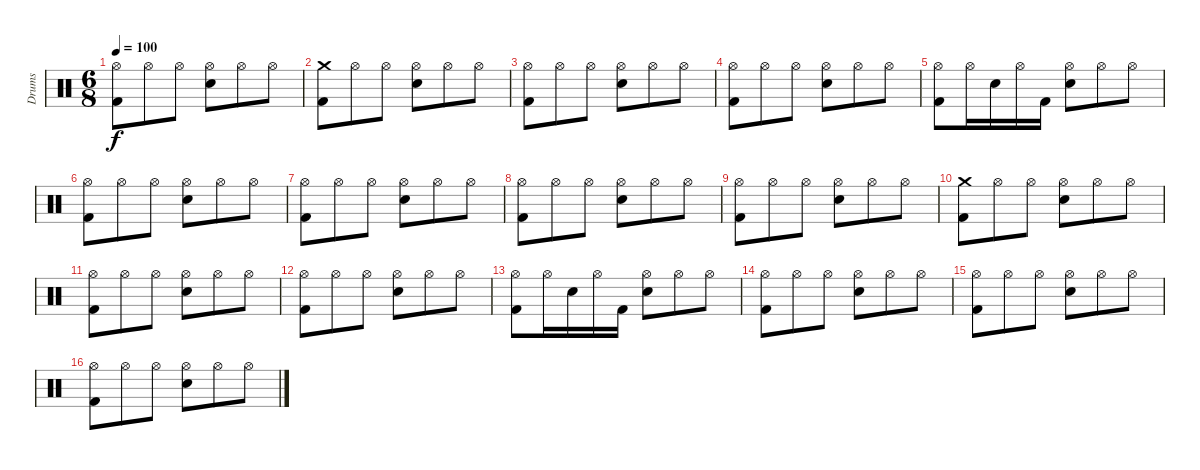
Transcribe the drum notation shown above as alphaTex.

\track ("Drums" "Drums") {instrument percussion}
\staff {score}
\articulation defaults
\ts (6 8)
\tempo 100
\clef neutral
\ks c
("Hi-Hat (open)" "Kick (hit) 2").8{dy f} "Hi-Hat (open)".8 "Hi-Hat (open)".8 ("Hi-Hat (open)" "Snare (hit) 2").8 "Hi-Hat (open)".8 "Hi-Hat (open)".8 |
("Crash medium (hit)" "Kick (hit) 2").8 "Hi-Hat (open)".8 "Hi-Hat (open)".8 ("Hi-Hat (open)" "Snare (hit) 2").8 "Hi-Hat (open)".8 "Hi-Hat (open)".8 |
("Hi-Hat (open)" "Kick (hit) 2").8 "Hi-Hat (open)".8 "Hi-Hat (open)".8 ("Hi-Hat (open)" "Snare (hit) 2").8 "Hi-Hat (open)".8 "Hi-Hat (open)".8 |
("Hi-Hat (open)" "Kick (hit) 2").8 "Hi-Hat (open)".8 "Hi-Hat (open)".8 ("Hi-Hat (open)" "Snare (hit) 2").8 "Hi-Hat (open)".8 "Hi-Hat (open)".8 |
("Hi-Hat (open)" "Kick (hit) 2").8 "Hi-Hat (open)".16 "Snare (hit) 2".16 "Hi-Hat (open)".16 "Kick (hit) 2".16 ("Hi-Hat (open)" "Snare (hit) 2").8 "Hi-Hat (open)".8 "Hi-Hat (open)".8 |
("Hi-Hat (open)" "Kick (hit) 2").8 "Hi-Hat (open)".8 "Hi-Hat (open)".8 ("Hi-Hat (open)" "Snare (hit) 2").8 "Hi-Hat (open)".8 "Hi-Hat (open)".8 |
("Hi-Hat (open)" "Kick (hit) 2").8 "Hi-Hat (open)".8 "Hi-Hat (open)".8 ("Hi-Hat (open)" "Snare (hit) 2").8 "Hi-Hat (open)".8 "Hi-Hat (open)".8 |
("Hi-Hat (open)" "Kick (hit) 2").8 "Hi-Hat (open)".8 "Hi-Hat (open)".8 ("Hi-Hat (open)" "Snare (hit) 2").8 "Hi-Hat (open)".8 "Hi-Hat (open)".8 |
("Hi-Hat (open)" "Kick (hit) 2").8 "Hi-Hat (open)".8 "Hi-Hat (open)".8 ("Hi-Hat (open)" "Snare (hit) 2").8 "Hi-Hat (open)".8 "Hi-Hat (open)".8 |
("Crash medium (hit)" "Kick (hit) 2").8 "Hi-Hat (open)".8 "Hi-Hat (open)".8 ("Hi-Hat (open)" "Snare (hit) 2").8 "Hi-Hat (open)".8 "Hi-Hat (open)".8 |
("Hi-Hat (open)" "Kick (hit) 2").8 "Hi-Hat (open)".8 "Hi-Hat (open)".8 ("Hi-Hat (open)" "Snare (hit) 2").8 "Hi-Hat (open)".8 "Hi-Hat (open)".8 |
("Hi-Hat (open)" "Kick (hit) 2").8 "Hi-Hat (open)".8 "Hi-Hat (open)".8 ("Hi-Hat (open)" "Snare (hit) 2").8 "Hi-Hat (open)".8 "Hi-Hat (open)".8 |
("Hi-Hat (open)" "Kick (hit) 2").8 "Hi-Hat (open)".16 "Snare (hit) 2".16 "Hi-Hat (open)".16 "Kick (hit) 2".16 ("Hi-Hat (open)" "Snare (hit) 2").8 "Hi-Hat (open)".8 "Hi-Hat (open)".8 |
("Hi-Hat (open)" "Kick (hit) 2").8 "Hi-Hat (open)".8 "Hi-Hat (open)".8 ("Hi-Hat (open)" "Snare (hit) 2").8 "Hi-Hat (open)".8 "Hi-Hat (open)".8 |
("Hi-Hat (open)" "Kick (hit) 2").8 "Hi-Hat (open)".8 "Hi-Hat (open)".8 ("Hi-Hat (open)" "Snare (hit) 2").8 "Hi-Hat (open)".8 "Hi-Hat (open)".8 |
("Hi-Hat (open)" "Kick (hit) 2").8 "Hi-Hat (open)".8 "Hi-Hat (open)".8 ("Hi-Hat (open)" "Snare (hit) 2").8 "Hi-Hat (open)".8 "Hi-Hat (open)".8
